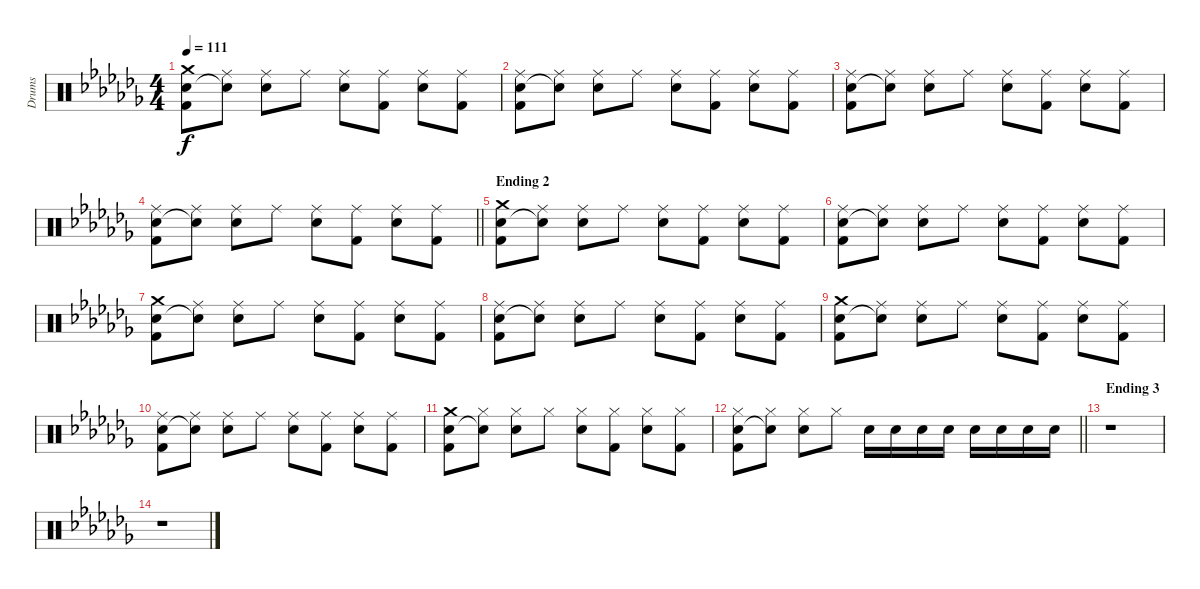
\track ("Drums" "Drums") {instrument percussion}
\staff {score}
\articulation defaults
\ts (4 4)
\tempo 111
\clef neutral
\ks abminor
("Crash medium (hit)" "Electric Snare (hit)" "Kick (hit) 2").8{dy f} ("Ride (middle)" "Snare (hit)"{t}).8 ("Ride (middle)" "Electric Snare (hit)").8 "Ride (middle)".8 ("Ride (middle)" "Electric Snare (hit)").8 ("Ride (middle)" "Kick (hit) 2").8 ("Ride (middle)" "Electric Snare (hit)").8 ("Ride (middle)" "Kick (hit) 2").8 |
("Ride (middle)" "Electric Snare (hit)" "Kick (hit) 2").8 ("Ride (middle)" "Snare (hit)"{t}).8 ("Ride (middle)" "Electric Snare (hit)").8 "Ride (middle)".8 ("Ride (middle)" "Electric Snare (hit)").8 ("Ride (middle)" "Kick (hit) 2").8 ("Ride (middle)" "Electric Snare (hit)").8 ("Ride (middle)" "Kick (hit) 2").8 |
("Ride (middle)" "Electric Snare (hit)" "Kick (hit) 2").8 ("Ride (middle)" "Snare (hit)"{t}).8 ("Ride (middle)" "Electric Snare (hit)").8 "Ride (middle)".8 ("Ride (middle)" "Electric Snare (hit)").8 ("Ride (middle)" "Kick (hit) 2").8 ("Ride (middle)" "Electric Snare (hit)").8 ("Ride (middle)" "Kick (hit) 2").8 |
\barLineRight lightlight
("Ride (middle)" "Electric Snare (hit)" "Kick (hit) 2").8 ("Ride (middle)" "Snare (hit)"{t}).8 ("Ride (middle)" "Electric Snare (hit)").8 "Ride (middle)".8 ("Ride (middle)" "Electric Snare (hit)").8 ("Ride (middle)" "Kick (hit) 2").8 ("Ride (middle)" "Electric Snare (hit)").8 ("Ride (middle)" "Kick (hit) 2").8 |
\section ("" "Ending 2")
("Crash medium (hit)" "Electric Snare (hit)" "Kick (hit) 2").8 ("Ride (middle)" "Snare (hit)"{t}).8 ("Ride (middle)" "Electric Snare (hit)").8 "Ride (middle)".8 ("Ride (middle)" "Electric Snare (hit)").8 ("Ride (middle)" "Kick (hit) 2").8 ("Ride (middle)" "Electric Snare (hit)").8 ("Ride (middle)" "Kick (hit) 2").8 |
("Ride (middle)" "Electric Snare (hit)" "Kick (hit) 2").8 ("Ride (middle)" "Snare (hit)"{t}).8 ("Ride (middle)" "Electric Snare (hit)").8 "Ride (middle)".8 ("Ride (middle)" "Electric Snare (hit)").8 ("Ride (middle)" "Kick (hit) 2").8 ("Ride (middle)" "Electric Snare (hit)").8 ("Ride (middle)" "Kick (hit) 2").8 |
("Crash medium (hit)" "Electric Snare (hit)" "Kick (hit) 2").8 ("Ride (middle)" "Snare (hit)"{t}).8 ("Ride (middle)" "Electric Snare (hit)").8 "Ride (middle)".8 ("Ride (middle)" "Electric Snare (hit)").8 ("Ride (middle)" "Kick (hit) 2").8 ("Ride (middle)" "Electric Snare (hit)").8 ("Ride (middle)" "Kick (hit) 2").8 |
("Ride (middle)" "Electric Snare (hit)" "Kick (hit) 2").8 ("Ride (middle)" "Snare (hit)"{t}).8 ("Ride (middle)" "Electric Snare (hit)").8 "Ride (middle)".8 ("Ride (middle)" "Electric Snare (hit)").8 ("Ride (middle)" "Kick (hit) 2").8 ("Ride (middle)" "Electric Snare (hit)").8 ("Ride (middle)" "Kick (hit) 2").8 |
("Crash medium (hit)" "Electric Snare (hit)" "Kick (hit) 2").8 ("Ride (middle)" "Snare (hit)"{t}).8 ("Ride (middle)" "Electric Snare (hit)").8 "Ride (middle)".8 ("Ride (middle)" "Electric Snare (hit)").8 ("Ride (middle)" "Kick (hit) 2").8 ("Ride (middle)" "Electric Snare (hit)").8 ("Ride (middle)" "Kick (hit) 2").8 |
("Ride (middle)" "Electric Snare (hit)" "Kick (hit) 2").8 ("Ride (middle)" "Snare (hit)"{t}).8 ("Ride (middle)" "Electric Snare (hit)").8 "Ride (middle)".8 ("Ride (middle)" "Electric Snare (hit)").8 ("Ride (middle)" "Kick (hit) 2").8 ("Ride (middle)" "Electric Snare (hit)").8 ("Ride (middle)" "Kick (hit) 2").8 |
("Crash medium (hit)" "Electric Snare (hit)" "Kick (hit) 2").8 ("Hi-Hat (closed)" "Snare (hit)"{t}).8 ("Hi-Hat (closed)" "Electric Snare (hit)").8 "Hi-Hat (closed)".8 ("Hi-Hat (closed)" "Electric Snare (hit)").8 ("Hi-Hat (closed)" "Kick (hit) 2").8 ("Hi-Hat (closed)" "Electric Snare (hit)").8 ("Hi-Hat (closed)" "Kick (hit) 2").8 |
\barLineRight lightlight
("Hi-Hat (closed)" "Electric Snare (hit)" "Kick (hit) 2").8 ("Hi-Hat (closed)" "Snare (hit)"{t}).8 ("Hi-Hat (closed)" "Electric Snare (hit)").8 "Hi-Hat (closed)".8 "Electric Snare (hit)".16 "Electric Snare (hit)".16 "Electric Snare (hit)".16 "Electric Snare (hit)".16 "Electric Snare (hit)".16 "Electric Snare (hit)".16 "Electric Snare (hit)".16 "Electric Snare (hit)".16 |
\section ("" "Ending 3")
r.1 |
r.1
